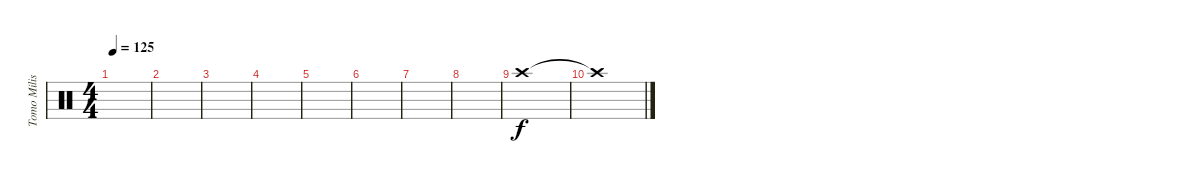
\track ("Tomo Milisevic" "Tomo Milis") {instrument percussion}
\staff {score}
\articulation defaults
\ts (4 4)
\tempo 125
\clef neutral
\ks c
|
|
|
|
|
|
|
|
"Crash high (hit)".1 |
"Crash high (hit)"{t}.1
